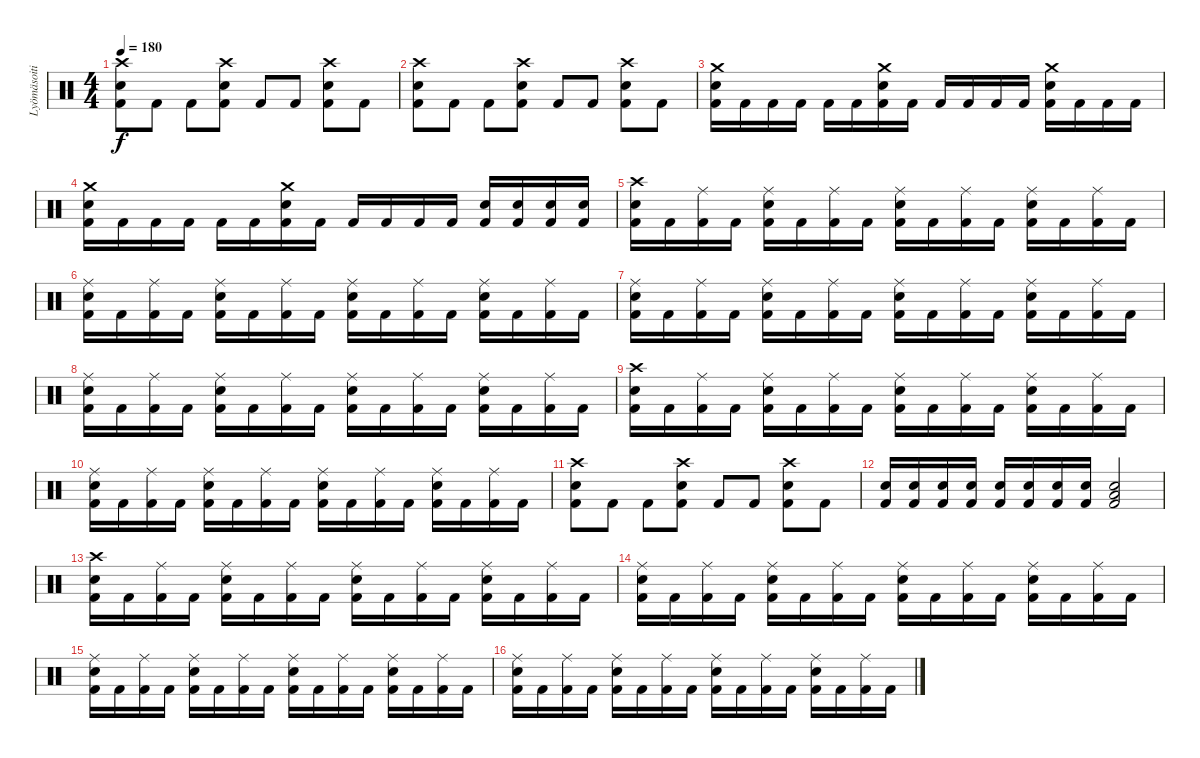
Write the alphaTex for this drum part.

\track ("Lyömäsoitin" "Lyömäsoiti") {instrument percussion}
\staff {score}
\articulation defaults
\ts (4 4)
\tempo 180
\clef neutral
\ks c
("Kick (hit) 2" "Electric Snare (hit)" "Crash high (hit)").8{dy f} "Kick (hit) 2".8 "Kick (hit) 2".8 ("Kick (hit) 2" "Electric Snare (hit)" "Crash high (hit)").8 "Kick (hit) 2".8 "Kick (hit) 2".8 ("Kick (hit) 2" "Electric Snare (hit)" "Crash high (hit)").8 "Kick (hit) 2".8 |
("Kick (hit) 2" "Electric Snare (hit)" "Crash high (hit)").8 "Kick (hit) 2".8 "Kick (hit) 2".8 ("Kick (hit) 2" "Electric Snare (hit)" "Crash high (hit)").8 "Kick (hit) 2".8 "Kick (hit) 2".8 ("Kick (hit) 2" "Electric Snare (hit)" "Crash high (hit)").8 "Kick (hit) 2".8 |
("Kick (hit) 2" "Electric Snare (hit)" "Crash medium (hit)").16 "Kick (hit) 2".16 "Kick (hit) 2".16 "Kick (hit) 2".16 "Kick (hit) 2".16 "Kick (hit) 2".16 ("Kick (hit) 2" "Electric Snare (hit)" "Crash medium (hit)").16 "Kick (hit) 2".16 "Kick (hit) 2".16 "Kick (hit) 2".16 "Kick (hit) 2".16 "Kick (hit) 2".16 ("Kick (hit) 2" "Electric Snare (hit)" "Crash medium (hit)").16 "Kick (hit) 2".16 "Kick (hit) 2".16 "Kick (hit) 2".16 |
("Kick (hit) 2" "Electric Snare (hit)" "Crash medium (hit)").16 "Kick (hit) 2".16 "Kick (hit) 2".16 "Kick (hit) 2".16 "Kick (hit) 2".16 "Kick (hit) 2".16 ("Kick (hit) 2" "Electric Snare (hit)" "Crash medium (hit)").16 "Kick (hit) 2".16 "Kick (hit) 2".16 "Kick (hit) 2".16 "Kick (hit) 2".16 "Kick (hit) 2".16 ("Kick (hit) 2" "Electric Snare (hit)").16 ("Kick (hit) 2" "Electric Snare (hit)").16 ("Kick (hit) 2" "Electric Snare (hit)").16 ("Kick (hit) 2" "Electric Snare (hit)").16 |
("Kick (hit) 2" "Electric Snare (hit)" "Crash high (hit)").16 "Kick (hit) 2".16 ("Kick (hit) 2" "Ride (middle)").16 "Kick (hit) 2".16 ("Kick (hit) 2" "Electric Snare (hit)" "Ride (middle)").16 "Kick (hit) 2".16 ("Kick (hit) 2" "Ride (middle)").16 "Kick (hit) 2".16 ("Kick (hit) 2" "Electric Snare (hit)" "Ride (middle)").16 "Kick (hit) 2".16 ("Kick (hit) 2" "Ride (middle)").16 "Kick (hit) 2".16 ("Kick (hit) 2" "Electric Snare (hit)" "Ride (middle)").16 "Kick (hit) 2".16 ("Kick (hit) 2" "Ride (middle)").16 "Kick (hit) 2".16 |
("Kick (hit) 2" "Electric Snare (hit)" "Ride (middle)").16 "Kick (hit) 2".16 ("Kick (hit) 2" "Ride (middle)").16 "Kick (hit) 2".16 ("Kick (hit) 2" "Electric Snare (hit)" "Ride (middle)").16 "Kick (hit) 2".16 ("Kick (hit) 2" "Ride (middle)").16 "Kick (hit) 2".16 ("Kick (hit) 2" "Electric Snare (hit)" "Ride (middle)").16 "Kick (hit) 2".16 ("Kick (hit) 2" "Ride (middle)").16 "Kick (hit) 2".16 ("Kick (hit) 2" "Electric Snare (hit)" "Ride (middle)").16 "Kick (hit) 2".16 ("Kick (hit) 2" "Ride (middle)").16 "Kick (hit) 2".16 |
("Kick (hit) 2" "Electric Snare (hit)" "Ride (middle)").16 "Kick (hit) 2".16 ("Kick (hit) 2" "Ride (middle)").16 "Kick (hit) 2".16 ("Kick (hit) 2" "Electric Snare (hit)" "Ride (middle)").16 "Kick (hit) 2".16 ("Kick (hit) 2" "Ride (middle)").16 "Kick (hit) 2".16 ("Kick (hit) 2" "Electric Snare (hit)" "Ride (middle)").16 "Kick (hit) 2".16 ("Kick (hit) 2" "Ride (middle)").16 "Kick (hit) 2".16 ("Kick (hit) 2" "Electric Snare (hit)" "Ride (middle)").16 "Kick (hit) 2".16 ("Kick (hit) 2" "Ride (middle)").16 "Kick (hit) 2".16 |
("Kick (hit) 2" "Electric Snare (hit)" "Ride (middle)").16 "Kick (hit) 2".16 ("Kick (hit) 2" "Ride (middle)").16 "Kick (hit) 2".16 ("Kick (hit) 2" "Electric Snare (hit)" "Ride (middle)").16 "Kick (hit) 2".16 ("Kick (hit) 2" "Ride (middle)").16 "Kick (hit) 2".16 ("Kick (hit) 2" "Electric Snare (hit)" "Ride (middle)").16 "Kick (hit) 2".16 ("Kick (hit) 2" "Ride (middle)").16 "Kick (hit) 2".16 ("Kick (hit) 2" "Electric Snare (hit)" "Ride (middle)").16 "Kick (hit) 2".16 ("Kick (hit) 2" "Ride (middle)").16 "Kick (hit) 2".16 |
("Kick (hit) 2" "Electric Snare (hit)" "Crash high (hit)").16 "Kick (hit) 2".16 ("Kick (hit) 2" "Ride (middle)").16 "Kick (hit) 2".16 ("Kick (hit) 2" "Electric Snare (hit)" "Ride (middle)").16 "Kick (hit) 2".16 ("Kick (hit) 2" "Ride (middle)").16 "Kick (hit) 2".16 ("Kick (hit) 2" "Electric Snare (hit)" "Ride (middle)").16 "Kick (hit) 2".16 ("Kick (hit) 2" "Ride (middle)").16 "Kick (hit) 2".16 ("Kick (hit) 2" "Electric Snare (hit)" "Ride (middle)").16 "Kick (hit) 2".16 ("Kick (hit) 2" "Ride (middle)").16 "Kick (hit) 2".16 |
("Kick (hit) 2" "Electric Snare (hit)" "Ride (middle)").16 "Kick (hit) 2".16 ("Kick (hit) 2" "Ride (middle)").16 "Kick (hit) 2".16 ("Kick (hit) 2" "Electric Snare (hit)" "Ride (middle)").16 "Kick (hit) 2".16 ("Kick (hit) 2" "Ride (middle)").16 "Kick (hit) 2".16 ("Kick (hit) 2" "Electric Snare (hit)" "Ride (middle)").16 "Kick (hit) 2".16 ("Kick (hit) 2" "Ride (middle)").16 "Kick (hit) 2".16 ("Kick (hit) 2" "Electric Snare (hit)" "Ride (middle)").16 "Kick (hit) 2".16 ("Kick (hit) 2" "Ride (middle)").16 "Kick (hit) 2".16 |
("Kick (hit) 2" "Electric Snare (hit)" "Crash high (hit)").8 "Kick (hit) 2".8 "Kick (hit) 2".8 ("Kick (hit) 2" "Electric Snare (hit)" "Crash high (hit)").8 "Kick (hit) 2".8 "Kick (hit) 2".8 ("Kick (hit) 2" "Electric Snare (hit)" "Crash high (hit)").8 "Kick (hit) 2".8 |
("Kick (hit) 2" "Electric Snare (hit)").16 ("Kick (hit) 2" "Electric Snare (hit)").16 ("Kick (hit) 2" "Electric Snare (hit)").16 ("Kick (hit) 2" "Electric Snare (hit)").16 ("Kick (hit) 2" "Electric Snare (hit)").16 ("Kick (hit) 2" "Electric Snare (hit)").16 ("Kick (hit) 2" "Electric Snare (hit)").16 ("Kick (hit) 2" "Electric Snare (hit)").16 ("Kick (hit) 2" "Electric Snare (hit)" "Low Tom (hit)").2 |
("Kick (hit) 2" "Electric Snare (hit)" "Crash high (hit)").16 "Kick (hit) 2".16 ("Kick (hit) 2" "Ride (middle)").16 "Kick (hit) 2".16 ("Kick (hit) 2" "Electric Snare (hit)" "Ride (middle)").16 "Kick (hit) 2".16 ("Kick (hit) 2" "Ride (middle)").16 "Kick (hit) 2".16 ("Kick (hit) 2" "Electric Snare (hit)" "Ride (middle)").16 "Kick (hit) 2".16 ("Kick (hit) 2" "Ride (middle)").16 "Kick (hit) 2".16 ("Kick (hit) 2" "Electric Snare (hit)" "Ride (middle)").16 "Kick (hit) 2".16 ("Kick (hit) 2" "Ride (middle)").16 "Kick (hit) 2".16 |
("Kick (hit) 2" "Electric Snare (hit)" "Ride (middle)").16 "Kick (hit) 2".16 ("Kick (hit) 2" "Ride (middle)").16 "Kick (hit) 2".16 ("Kick (hit) 2" "Electric Snare (hit)" "Ride (middle)").16 "Kick (hit) 2".16 ("Kick (hit) 2" "Ride (middle)").16 "Kick (hit) 2".16 ("Kick (hit) 2" "Electric Snare (hit)" "Ride (middle)").16 "Kick (hit) 2".16 ("Kick (hit) 2" "Ride (middle)").16 "Kick (hit) 2".16 ("Kick (hit) 2" "Electric Snare (hit)" "Ride (middle)").16 "Kick (hit) 2".16 ("Kick (hit) 2" "Ride (middle)").16 "Kick (hit) 2".16 |
("Kick (hit) 2" "Electric Snare (hit)" "Ride (middle)").16 "Kick (hit) 2".16 ("Kick (hit) 2" "Ride (middle)").16 "Kick (hit) 2".16 ("Kick (hit) 2" "Electric Snare (hit)" "Ride (middle)").16 "Kick (hit) 2".16 ("Kick (hit) 2" "Ride (middle)").16 "Kick (hit) 2".16 ("Kick (hit) 2" "Electric Snare (hit)" "Ride (middle)").16 "Kick (hit) 2".16 ("Kick (hit) 2" "Ride (middle)").16 "Kick (hit) 2".16 ("Kick (hit) 2" "Electric Snare (hit)" "Ride (middle)").16 "Kick (hit) 2".16 ("Kick (hit) 2" "Ride (middle)").16 "Kick (hit) 2".16 |
("Kick (hit) 2" "Electric Snare (hit)" "Ride (middle)").16 "Kick (hit) 2".16 ("Kick (hit) 2" "Ride (middle)").16 "Kick (hit) 2".16 ("Kick (hit) 2" "Electric Snare (hit)" "Ride (middle)").16 "Kick (hit) 2".16 ("Kick (hit) 2" "Ride (middle)").16 "Kick (hit) 2".16 ("Kick (hit) 2" "Electric Snare (hit)" "Ride (middle)").16 "Kick (hit) 2".16 ("Kick (hit) 2" "Ride (middle)").16 "Kick (hit) 2".16 ("Kick (hit) 2" "Electric Snare (hit)" "Ride (middle)").16 "Kick (hit) 2".16 ("Kick (hit) 2" "Ride (middle)").16 "Kick (hit) 2".16
